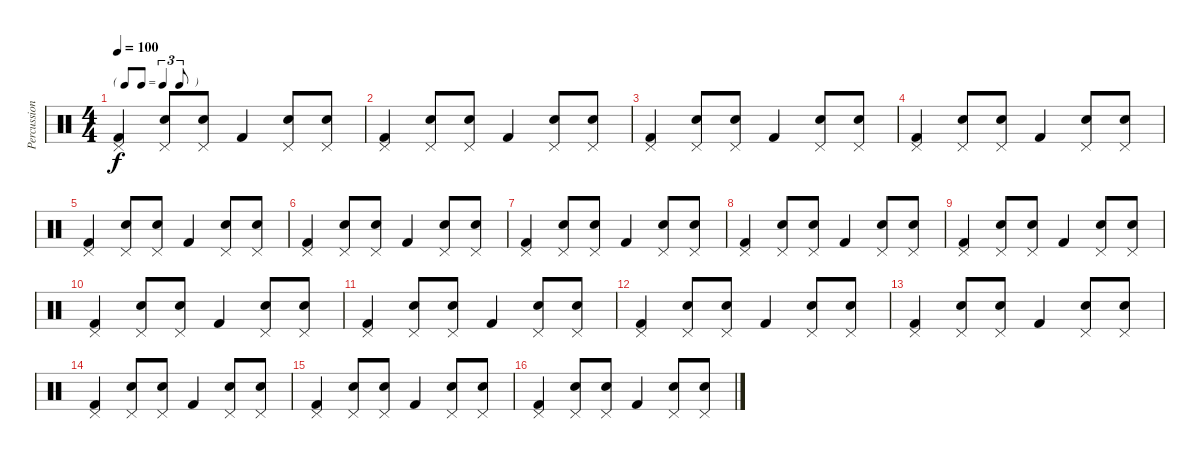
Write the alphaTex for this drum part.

\track ("Percussion" "Percussion") {instrument percussion}
\staff {score}
\articulation defaults
\ts (4 4)
\tf triplet8th
\tempo 100
\clef neutral
\ks c
("Kick (hit) 2" "Pedal Hi-Hat (hit)").4{dy f} ("Snare (hit) 2" "Pedal Hi-Hat (hit)").8 ("Snare (hit) 2" "Pedal Hi-Hat (hit)").8 "Kick (hit) 2".4 ("Snare (hit) 2" "Pedal Hi-Hat (hit)").8 ("Snare (hit) 2" "Pedal Hi-Hat (hit)").8 |
("Kick (hit) 2" "Pedal Hi-Hat (hit)").4 ("Snare (hit) 2" "Pedal Hi-Hat (hit)").8 ("Snare (hit) 2" "Pedal Hi-Hat (hit)").8 "Kick (hit) 2".4 ("Snare (hit) 2" "Pedal Hi-Hat (hit)").8 ("Snare (hit) 2" "Pedal Hi-Hat (hit)").8 |
("Kick (hit) 2" "Pedal Hi-Hat (hit)").4 ("Snare (hit) 2" "Pedal Hi-Hat (hit)").8 ("Snare (hit) 2" "Pedal Hi-Hat (hit)").8 "Kick (hit) 2".4 ("Snare (hit) 2" "Pedal Hi-Hat (hit)").8 ("Snare (hit) 2" "Pedal Hi-Hat (hit)").8 |
("Kick (hit) 2" "Pedal Hi-Hat (hit)").4 ("Snare (hit) 2" "Pedal Hi-Hat (hit)").8 ("Snare (hit) 2" "Pedal Hi-Hat (hit)").8 "Kick (hit) 2".4 ("Snare (hit) 2" "Pedal Hi-Hat (hit)").8 ("Snare (hit) 2" "Pedal Hi-Hat (hit)").8 |
("Kick (hit) 2" "Pedal Hi-Hat (hit)").4 ("Snare (hit) 2" "Pedal Hi-Hat (hit)").8 ("Snare (hit) 2" "Pedal Hi-Hat (hit)").8 "Kick (hit) 2".4 ("Snare (hit) 2" "Pedal Hi-Hat (hit)").8 ("Snare (hit) 2" "Pedal Hi-Hat (hit)").8 |
("Kick (hit) 2" "Pedal Hi-Hat (hit)").4 ("Snare (hit) 2" "Pedal Hi-Hat (hit)").8 ("Snare (hit) 2" "Pedal Hi-Hat (hit)").8 "Kick (hit) 2".4 ("Snare (hit) 2" "Pedal Hi-Hat (hit)").8 ("Snare (hit) 2" "Pedal Hi-Hat (hit)").8 |
("Kick (hit) 2" "Pedal Hi-Hat (hit)").4 ("Snare (hit) 2" "Pedal Hi-Hat (hit)").8 ("Snare (hit) 2" "Pedal Hi-Hat (hit)").8 "Kick (hit) 2".4 ("Snare (hit) 2" "Pedal Hi-Hat (hit)").8 ("Snare (hit) 2" "Pedal Hi-Hat (hit)").8 |
("Kick (hit) 2" "Pedal Hi-Hat (hit)").4 ("Snare (hit) 2" "Pedal Hi-Hat (hit)").8 ("Snare (hit) 2" "Pedal Hi-Hat (hit)").8 "Kick (hit) 2".4 ("Snare (hit) 2" "Pedal Hi-Hat (hit)").8 ("Snare (hit) 2" "Pedal Hi-Hat (hit)").8 |
("Kick (hit) 2" "Pedal Hi-Hat (hit)").4 ("Snare (hit) 2" "Pedal Hi-Hat (hit)").8 ("Snare (hit) 2" "Pedal Hi-Hat (hit)").8 "Kick (hit) 2".4 ("Snare (hit) 2" "Pedal Hi-Hat (hit)").8 ("Snare (hit) 2" "Pedal Hi-Hat (hit)").8 |
("Kick (hit) 2" "Pedal Hi-Hat (hit)").4 ("Snare (hit) 2" "Pedal Hi-Hat (hit)").8 ("Snare (hit) 2" "Pedal Hi-Hat (hit)").8 "Kick (hit) 2".4 ("Snare (hit) 2" "Pedal Hi-Hat (hit)").8 ("Snare (hit) 2" "Pedal Hi-Hat (hit)").8 |
("Kick (hit) 2" "Pedal Hi-Hat (hit)").4 ("Snare (hit) 2" "Pedal Hi-Hat (hit)").8 ("Snare (hit) 2" "Pedal Hi-Hat (hit)").8 "Kick (hit) 2".4 ("Snare (hit) 2" "Pedal Hi-Hat (hit)").8 ("Snare (hit) 2" "Pedal Hi-Hat (hit)").8 |
("Kick (hit) 2" "Pedal Hi-Hat (hit)").4 ("Snare (hit) 2" "Pedal Hi-Hat (hit)").8 ("Snare (hit) 2" "Pedal Hi-Hat (hit)").8 "Kick (hit) 2".4 ("Snare (hit) 2" "Pedal Hi-Hat (hit)").8 ("Snare (hit) 2" "Pedal Hi-Hat (hit)").8 |
("Kick (hit) 2" "Pedal Hi-Hat (hit)").4 ("Snare (hit) 2" "Pedal Hi-Hat (hit)").8 ("Snare (hit) 2" "Pedal Hi-Hat (hit)").8 "Kick (hit) 2".4 ("Snare (hit) 2" "Pedal Hi-Hat (hit)").8 ("Snare (hit) 2" "Pedal Hi-Hat (hit)").8 |
("Kick (hit) 2" "Pedal Hi-Hat (hit)").4 ("Snare (hit) 2" "Pedal Hi-Hat (hit)").8 ("Snare (hit) 2" "Pedal Hi-Hat (hit)").8 "Kick (hit) 2".4 ("Snare (hit) 2" "Pedal Hi-Hat (hit)").8 ("Snare (hit) 2" "Pedal Hi-Hat (hit)").8 |
("Kick (hit) 2" "Pedal Hi-Hat (hit)").4 ("Snare (hit) 2" "Pedal Hi-Hat (hit)").8 ("Snare (hit) 2" "Pedal Hi-Hat (hit)").8 "Kick (hit) 2".4 ("Snare (hit) 2" "Pedal Hi-Hat (hit)").8 ("Snare (hit) 2" "Pedal Hi-Hat (hit)").8 |
("Kick (hit) 2" "Pedal Hi-Hat (hit)").4 ("Snare (hit) 2" "Pedal Hi-Hat (hit)").8 ("Snare (hit) 2" "Pedal Hi-Hat (hit)").8 "Kick (hit) 2".4 ("Snare (hit) 2" "Pedal Hi-Hat (hit)").8 ("Snare (hit) 2" "Pedal Hi-Hat (hit)").8
